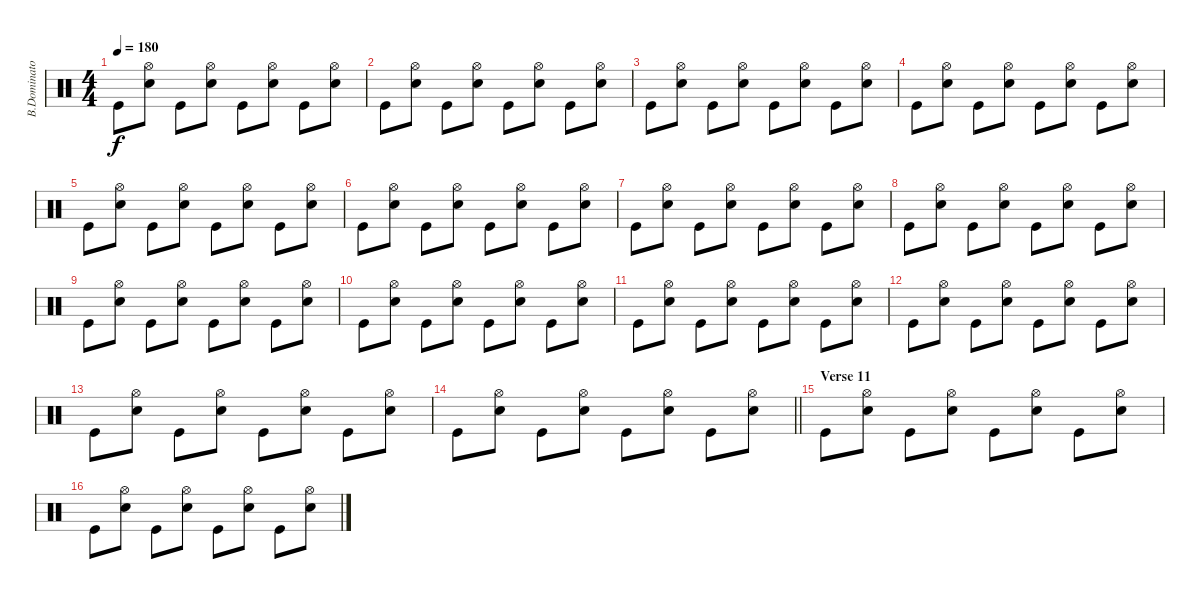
\track ("B.Dominator" "B.Dominato") {instrument percussion}
\staff {score}
\articulation defaults
\ts (4 4)
\tempo 180
\clef neutral
\ks c "Kick (hit)".8{dy f}
("Hi-Hat (open)" "Snare (hit) 2").8 "Kick (hit)".8 ("Hi-Hat (open)" "Snare (hit) 2").8 "Kick (hit)".8 ("Hi-Hat (open)" "Snare (hit) 2").8 "Kick (hit)".8 ("Hi-Hat (open)" "Snare (hit) 2").8 |
"Kick (hit)".8 ("Hi-Hat (open)" "Snare (hit) 2").8 "Kick (hit)".8 ("Hi-Hat (open)" "Snare (hit) 2").8 "Kick (hit)".8 ("Hi-Hat (open)" "Snare (hit) 2").8 "Kick (hit)".8 ("Hi-Hat (open)" "Snare (hit) 2").8 |
"Kick (hit)".8 ("Hi-Hat (open)" "Snare (hit) 2").8 "Kick (hit)".8 ("Hi-Hat (open)" "Snare (hit) 2").8 "Kick (hit)".8 ("Hi-Hat (open)" "Snare (hit) 2").8 "Kick (hit)".8 ("Hi-Hat (open)" "Snare (hit) 2").8 |
"Kick (hit)".8 ("Hi-Hat (open)" "Snare (hit) 2").8 "Kick (hit)".8 ("Hi-Hat (open)" "Snare (hit) 2").8 "Kick (hit)".8 ("Hi-Hat (open)" "Snare (hit) 2").8 "Kick (hit)".8 ("Hi-Hat (open)" "Snare (hit) 2").8 |
"Kick (hit)".8 ("Hi-Hat (open)" "Snare (hit) 2").8 "Kick (hit)".8 ("Hi-Hat (open)" "Snare (hit) 2").8 "Kick (hit)".8 ("Hi-Hat (open)" "Snare (hit) 2").8 "Kick (hit)".8 ("Hi-Hat (open)" "Snare (hit) 2").8 |
"Kick (hit)".8 ("Hi-Hat (open)" "Snare (hit) 2").8 "Kick (hit)".8 ("Hi-Hat (open)" "Snare (hit) 2").8 "Kick (hit)".8 ("Hi-Hat (open)" "Snare (hit) 2").8 "Kick (hit)".8 ("Hi-Hat (open)" "Snare (hit) 2").8 |
"Kick (hit)".8 ("Hi-Hat (open)" "Snare (hit) 2").8 "Kick (hit)".8 ("Hi-Hat (open)" "Snare (hit) 2").8 "Kick (hit)".8 ("Hi-Hat (open)" "Snare (hit) 2").8 "Kick (hit)".8 ("Hi-Hat (open)" "Snare (hit) 2").8 |
"Kick (hit)".8 ("Hi-Hat (open)" "Snare (hit) 2").8 "Kick (hit)".8 ("Hi-Hat (open)" "Snare (hit) 2").8 "Kick (hit)".8 ("Hi-Hat (open)" "Snare (hit) 2").8 "Kick (hit)".8 ("Hi-Hat (open)" "Snare (hit) 2").8 |
"Kick (hit)".8 ("Hi-Hat (open)" "Snare (hit) 2").8 "Kick (hit)".8 ("Hi-Hat (open)" "Snare (hit) 2").8 "Kick (hit)".8 ("Hi-Hat (open)" "Snare (hit) 2").8 "Kick (hit)".8 ("Hi-Hat (open)" "Snare (hit) 2").8 |
"Kick (hit)".8 ("Hi-Hat (open)" "Snare (hit) 2").8 "Kick (hit)".8 ("Hi-Hat (open)" "Snare (hit) 2").8 "Kick (hit)".8 ("Hi-Hat (open)" "Snare (hit) 2").8 "Kick (hit)".8 ("Hi-Hat (open)" "Snare (hit) 2").8 |
"Kick (hit)".8 ("Hi-Hat (open)" "Snare (hit) 2").8 "Kick (hit)".8 ("Hi-Hat (open)" "Snare (hit) 2").8 "Kick (hit)".8 ("Hi-Hat (open)" "Snare (hit) 2").8 "Kick (hit)".8 ("Hi-Hat (open)" "Snare (hit) 2").8 |
"Kick (hit)".8 ("Hi-Hat (open)" "Snare (hit) 2").8 "Kick (hit)".8 ("Hi-Hat (open)" "Snare (hit) 2").8 "Kick (hit)".8 ("Hi-Hat (open)" "Snare (hit) 2").8 "Kick (hit)".8 ("Hi-Hat (open)" "Snare (hit) 2").8 |
"Kick (hit)".8 ("Hi-Hat (open)" "Snare (hit) 2").8 "Kick (hit)".8 ("Hi-Hat (open)" "Snare (hit) 2").8 "Kick (hit)".8 ("Hi-Hat (open)" "Snare (hit) 2").8 "Kick (hit)".8 ("Hi-Hat (open)" "Snare (hit) 2").8 |
\barLineRight lightlight "Kick (hit)".8
("Hi-Hat (open)" "Snare (hit) 2").8 "Kick (hit)".8 ("Hi-Hat (open)" "Snare (hit) 2").8 "Kick (hit)".8 ("Hi-Hat (open)" "Snare (hit) 2").8 "Kick (hit)".8 ("Hi-Hat (open)" "Snare (hit) 2").8 |
\section ("" "Verse 11")
"Kick (hit)".8 ("Hi-Hat (open)" "Snare (hit) 2").8 "Kick (hit)".8 ("Hi-Hat (open)" "Snare (hit) 2").8 "Kick (hit)".8 ("Hi-Hat (open)" "Snare (hit) 2").8 "Kick (hit)".8 ("Hi-Hat (open)" "Snare (hit) 2").8 |
"Kick (hit)".8 ("Hi-Hat (open)" "Snare (hit) 2").8 "Kick (hit)".8 ("Hi-Hat (open)" "Snare (hit) 2").8 "Kick (hit)".8 ("Hi-Hat (open)" "Snare (hit) 2").8 "Kick (hit)".8 ("Hi-Hat (open)" "Snare (hit) 2").8
